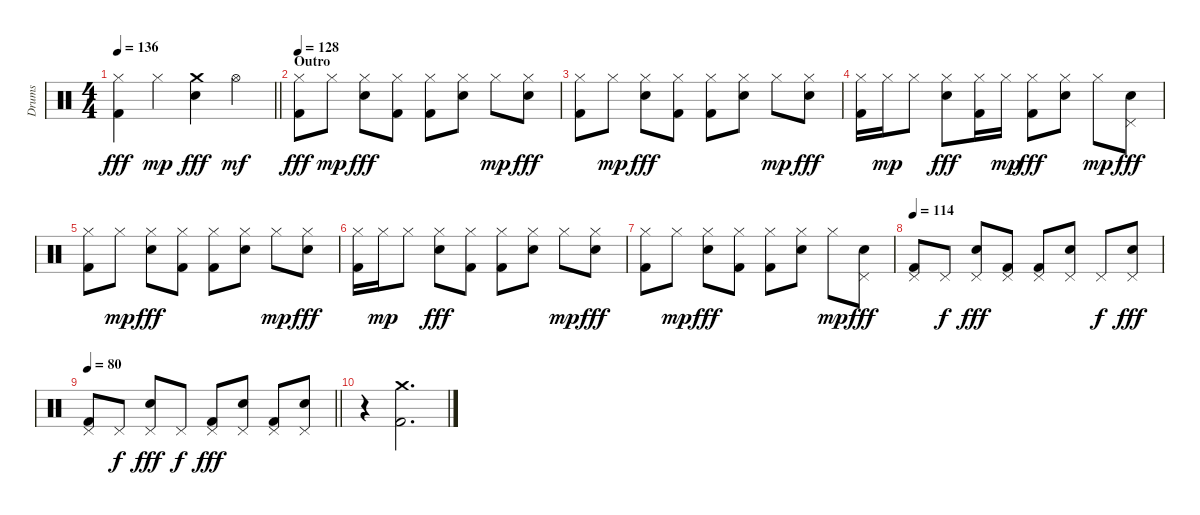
\track ("Drums" "Drums") {instrument percussion}
\staff {score}
\articulation defaults
\ts (4 4)
\tempo 136
\clef neutral
\barLineRight lightlight
\ks c
("Hi-Hat (closed)" "Kick (hit) 2").4{dy fff} "Hi-Hat (closed)".4{dy mp} ("Crash medium (hit)" "Electric Snare (hit)").4{dy fff} "Hi-Hat (open)".4{dy mf} |
\section ("" "Outro")
\tempo 128
("Hi-Hat (closed)" "Kick (hit) 2").8{dy fff} "Hi-Hat (closed)".8{dy mp} ("Hi-Hat (closed)" "Electric Snare (hit)").8{dy fff} ("Hi-Hat (closed)" "Kick (hit) 2").8 ("Hi-Hat (closed)" "Kick (hit) 2").8 ("Hi-Hat (closed)" "Electric Snare (hit)").8 "Hi-Hat (closed)".8{dy mp} ("Hi-Hat (closed)" "Electric Snare (hit)").8{dy fff} |
("Hi-Hat (closed)" "Kick (hit) 2").8 "Hi-Hat (closed)".8{dy mp} ("Hi-Hat (closed)" "Electric Snare (hit)").8{dy fff} ("Hi-Hat (closed)" "Kick (hit) 2").8 ("Hi-Hat (closed)" "Kick (hit) 2").8 ("Hi-Hat (closed)" "Electric Snare (hit)").8 "Hi-Hat (closed)".8{dy mp} ("Hi-Hat (closed)" "Electric Snare (hit)").8{dy fff} |
("Hi-Hat (closed)" "Kick (hit) 2").16 "Hi-Hat (closed)".16{dy mp} "Hi-Hat (closed)".8 ("Hi-Hat (closed)" "Electric Snare (hit)").8{dy fff} ("Hi-Hat (closed)" "Kick (hit) 2").16 "Hi-Hat (closed)".16{dy mp} ("Hi-Hat (closed)" "Kick (hit) 2").8{dy fff} ("Hi-Hat (closed)" "Electric Snare (hit)").8 "Hi-Hat (closed)".8{dy mp} ("Pedal Hi-Hat (hit)" "Electric Snare (hit)").8{dy fff} |
("Hi-Hat (closed)" "Kick (hit) 2").8 "Hi-Hat (closed)".8{dy mp} ("Hi-Hat (closed)" "Electric Snare (hit)").8{dy fff} ("Hi-Hat (closed)" "Kick (hit) 2").8 ("Hi-Hat (closed)" "Kick (hit) 2").8 ("Hi-Hat (closed)" "Electric Snare (hit)").8 "Hi-Hat (closed)".8{dy mp} ("Hi-Hat (closed)" "Electric Snare (hit)").8{dy fff} |
("Hi-Hat (closed)" "Kick (hit) 2").16 "Hi-Hat (closed)".16{dy mp} "Hi-Hat (closed)".8 ("Hi-Hat (closed)" "Electric Snare (hit)").8{dy fff} ("Hi-Hat (closed)" "Kick (hit) 2").8 ("Hi-Hat (closed)" "Kick (hit) 2").8 ("Hi-Hat (closed)" "Electric Snare (hit)").8 "Hi-Hat (closed)".8{dy mp} ("Hi-Hat (closed)" "Electric Snare (hit)").8{dy fff} |
("Hi-Hat (closed)" "Kick (hit) 2").8 "Hi-Hat (closed)".8{dy mp} ("Hi-Hat (closed)" "Electric Snare (hit)").8{dy fff} ("Hi-Hat (closed)" "Kick (hit) 2").8 ("Hi-Hat (closed)" "Kick (hit) 2").8 ("Hi-Hat (closed)" "Electric Snare (hit)").8 "Hi-Hat (closed)".8{dy mp} ("Pedal Hi-Hat (hit)" "Electric Snare (hit)").8{dy fff} |
\tempo 114
("Pedal Hi-Hat (hit)" "Kick (hit) 2").8 "Pedal Hi-Hat (hit)".8{dy f} ("Pedal Hi-Hat (hit)" "Electric Snare (hit)").8{dy fff} ("Pedal Hi-Hat (hit)" "Kick (hit) 2").8 ("Pedal Hi-Hat (hit)" "Kick (hit) 2").8 ("Pedal Hi-Hat (hit)" "Electric Snare (hit)").8 "Pedal Hi-Hat (hit)".8{dy f} ("Pedal Hi-Hat (hit)" "Electric Snare (hit)").8{dy fff} |
\tempo 80
\barLineRight lightlight
("Pedal Hi-Hat (hit)" "Kick (hit) 2").8 "Pedal Hi-Hat (hit)".8{dy f} ("Pedal Hi-Hat (hit)" "Electric Snare (hit)").8{dy fff} "Pedal Hi-Hat (hit)".8{dy f} ("Pedal Hi-Hat (hit)" "Kick (hit) 2").8{dy fff} ("Pedal Hi-Hat (hit)" "Electric Snare (hit)").8 ("Pedal Hi-Hat (hit)" "Kick (hit) 2").8 ("Pedal Hi-Hat (hit)" "Electric Snare (hit)").8 |
r.4 ("Crash medium (hit)" "Kick (hit) 2").2{d}
